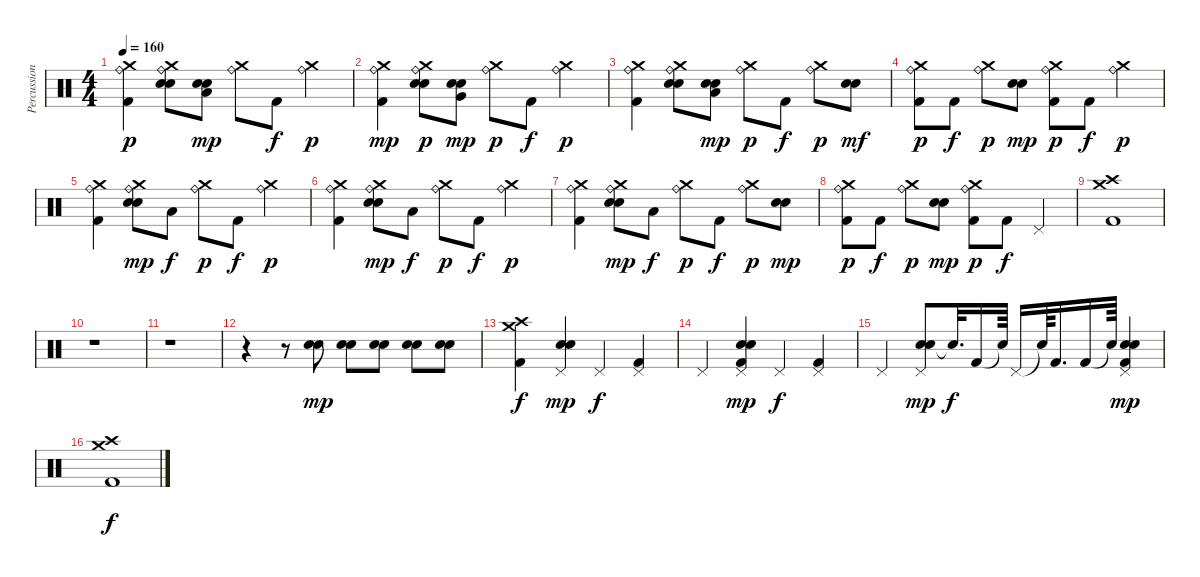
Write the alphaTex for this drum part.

\track ("Percussion" "Percussion") {instrument percussion}
\staff {score}
\articulation defaults
\ts (4 4)
\tempo 160
\clef neutral
\ks c
("Kick (hit) 2" "Ride (bell)" "Crash medium (hit)").4{dy p} ("Snare (hit) 2" "Ride (bell)" "Electric Snare (hit)" "Crash medium (hit)").8 ("Low Floor Tom (hit)" "Snare (hit) 2" "Electric Snare (hit)").8{dy mp} ("Ride (bell)" "Crash medium (hit)").8 "Kick (hit) 2".8{dy f} ("Ride (bell)" "Crash medium (hit)").4{dy p} |
("Kick (hit) 2" "Ride (bell)" "Crash medium (hit)").4{dy mp} ("Snare (hit) 2" "Ride (bell)" "Electric Snare (hit)" "Crash medium (hit)").8{dy p} ("Very Low Tom (hit)" "Snare (hit) 2" "Electric Snare (hit)").8{dy mp} ("Ride (bell)" "Crash medium (hit)").8{dy p} "Kick (hit) 2".8{dy f} ("Ride (bell)" "Crash medium (hit)").4{dy p} |
("Kick (hit) 2" "Ride (bell)" "Crash medium (hit)").4 ("Snare (hit) 2" "Ride (bell)" "Electric Snare (hit)" "Crash medium (hit)").8 ("Low Floor Tom (hit)" "Snare (hit) 2" "Electric Snare (hit)").8{dy mp} ("Ride (bell)" "Crash medium (hit)").8{dy p} "Kick (hit) 2".8{dy f} ("Ride (bell)" "Crash medium (hit)").8{dy p} ("Snare (hit) 2" "Electric Snare (hit)").8{dy mf} |
("Ride (bell)" "Kick (hit) 2" "Crash medium (hit)").8{dy p} "Kick (hit) 2".8{dy f} ("Ride (bell)" "Crash medium (hit)").8{dy p} ("Snare (hit) 2" "Electric Snare (hit)").8{dy mp} ("Ride (bell)" "Kick (hit) 2" "Crash medium (hit)").8{dy p} "Kick (hit) 2".8{dy f} ("Ride (bell)" "Crash medium (hit)").4{dy p} |
("Ride (bell)" "Kick (hit) 2" "Crash medium (hit)").4 ("Ride (bell)" "Snare (hit) 2" "Crash medium (hit)" "Electric Snare (hit)").8{dy mp} "Low Floor Tom (hit)".8{dy f} ("Ride (bell)" "Crash medium (hit)").8{dy p} "Kick (hit) 2".8{dy f} ("Ride (bell)" "Crash medium (hit)").4{dy p} |
("Kick (hit) 2" "Ride (bell)" "Crash medium (hit)").4 ("Snare (hit) 2" "Ride (bell)" "Crash medium (hit)" "Electric Snare (hit)").8{dy mp} "Low Floor Tom (hit)".8{dy f} ("Ride (bell)" "Crash medium (hit)").8{dy p} "Kick (hit) 2".8{dy f} ("Ride (bell)" "Crash medium (hit)").4{dy p} |
("Kick (hit) 2" "Ride (bell)" "Crash medium (hit)").4 ("Snare (hit) 2" "Ride (bell)" "Crash medium (hit)" "Electric Snare (hit)").8{dy mp} "Low Floor Tom (hit)".8{dy f} ("Ride (bell)" "Crash medium (hit)").8{dy p} "Kick (hit) 2".8{dy f} ("Ride (bell)" "Crash medium (hit)").8{dy p} ("Snare (hit) 2" "Electric Snare (hit)").8{dy mp} |
("Ride (bell)" "Kick (hit) 2" "Crash medium (hit)").8{dy p} "Kick (hit) 2".8{dy f} ("Ride (bell)" "Crash medium (hit)").8{dy p} ("Snare (hit) 2" "Electric Snare (hit)").8{dy mp} ("Ride (bell)" "Kick (hit) 2" "Crash medium (hit)").8{dy p} "Kick (hit) 2".8{dy f} "Pedal Hi-Hat (hit)".4 |
("Kick (hit) 2" "Crash high (hit)" "Crash medium (hit)").1 |
r.1 |
r.1 |
r.4 r.8 ("Snare (hit) 2" "Electric Snare (hit)").8{dy mp} ("Snare (hit) 2" "Electric Snare (hit)").8 ("Snare (hit) 2" "Electric Snare (hit)").8 ("Snare (hit) 2" "Electric Snare (hit)").8 ("Snare (hit) 2" "Electric Snare (hit)").8 |
("Crash medium (hit)" "Kick (hit) 2" "Crash high (hit)").4{dy f} ("Snare (hit) 2" "Electric Snare (hit)" "Pedal Hi-Hat (hit)").4{dy mp} "Pedal Hi-Hat (hit)".4{dy f} ("Pedal Hi-Hat (hit)" "Kick (hit) 2").4 |
"Pedal Hi-Hat (hit)".4 ("Snare (hit) 2" "Pedal Hi-Hat (hit)" "Kick (hit) 2" "Electric Snare (hit)").4{dy mp} "Pedal Hi-Hat (hit)".4{dy f} ("Kick (hit) 2" "Pedal Hi-Hat (hit)").4 |
"Pedal Hi-Hat (hit)".4 ("Snare (hit) 2" "Electric Snare (hit)" "Pedal Hi-Hat (hit)").8{dy mp} "Snare (hit)"{t}.32{d dy f} "Kick (hit) 2".16 "Snare (hit)"{t}.64 "Pedal Hi-Hat (hit)".16 "Snare (hit)"{t}.64 "Kick (hit) 2".16{d} "Kick (hit) 2".16 "Snare (hit)"{t}.64 ("Snare (hit) 2" "Electric Snare (hit)" "Pedal Hi-Hat (hit)" "Kick (hit) 2").4{dy mp} |
("Kick (hit) 2" "Crash high (hit)" "Crash medium (hit)").1{dy f}
